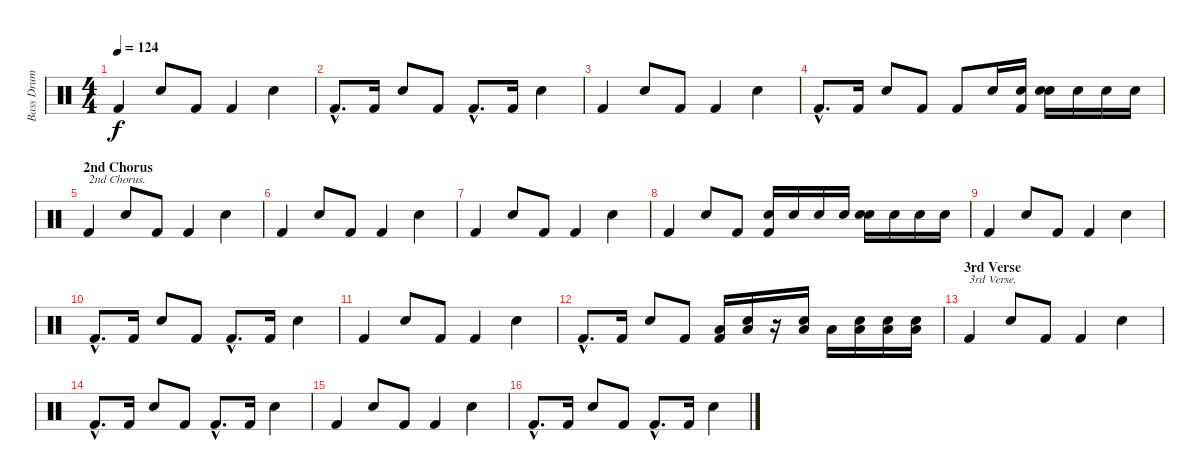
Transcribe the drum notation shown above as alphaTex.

\track ("Bass Drum and Snares" "Bass Drum ") {instrument percussion}
\staff {score}
\articulation defaults
\ts (4 4)
\tempo 124
\clef neutral
\ks c "Kick (hit) 2".4{dy f} "Snare (hit) 2".8 "Kick (hit) 2".8 "Kick (hit) 2".4 "Snare (hit) 2".4
|
"Kick (hit) 2"{hac}.8{d} "Kick (hit) 2".16 "Snare (hit) 2".8 "Kick (hit) 2".8 "Kick (hit) 2"{hac}.8{d} "Kick (hit) 2".16 "Snare (hit) 2".4 |
"Kick (hit) 2".4 "Snare (hit) 2".8 "Kick (hit) 2".8 "Kick (hit) 2".4 "Snare (hit) 2".4 |
"Kick (hit) 2"{hac}.8{d} "Kick (hit) 2".16 "Snare (hit) 2".8 "Kick (hit) 2".8 "Kick (hit) 2".8 "Electric Snare (hit)".16 ("Electric Snare (hit)" "Kick (hit) 2").16 ("Electric Snare (hit)" "Snare (hit) 2").16 "Electric Snare (hit)".16 "Electric Snare (hit)".16 "Electric Snare (hit)".16 |
\section ("" "2nd Chorus")
"Kick (hit) 2".4{txt "2nd Chorus."} "Snare (hit) 2".8 "Kick (hit) 2".8 "Kick (hit) 2".4 "Snare (hit) 2".4 |
"Kick (hit) 2".4 "Snare (hit) 2".8 "Kick (hit) 2".8 "Kick (hit) 2".4 "Snare (hit) 2".4 |
"Kick (hit) 2".4 "Snare (hit) 2".8 "Kick (hit) 2".8 "Kick (hit) 2".4 "Snare (hit) 2".4 |
"Kick (hit) 2".4 "Snare (hit) 2".8 "Kick (hit) 2".8 ("Electric Snare (hit)" "Kick (hit) 2").16 "Electric Snare (hit)".16 "Electric Snare (hit)".16 "Electric Snare (hit)".16 ("Electric Snare (hit)" "Snare (hit) 2").16 "Electric Snare (hit)".16 "Electric Snare (hit)".16 "Electric Snare (hit)".16 |
"Kick (hit) 2".4 "Snare (hit) 2".8 "Kick (hit) 2".8 "Kick (hit) 2".4 "Snare (hit) 2".4 |
"Kick (hit) 2"{hac}.8{d} "Kick (hit) 2".16 "Snare (hit) 2".8 "Kick (hit) 2".8 "Kick (hit) 2"{hac}.8{d} "Kick (hit) 2".16 "Snare (hit) 2".4 |
"Kick (hit) 2".4 "Snare (hit) 2".8 "Kick (hit) 2".8 "Kick (hit) 2".4 "Snare (hit) 2".4 |
"Kick (hit) 2"{hac}.8{d} "Kick (hit) 2".16 "Snare (hit) 2".8 "Kick (hit) 2".8 ("Low Tom (hit)" "Kick (hit) 2").16 ("Snare (hit) 2" "Low Tom (hit)").16 r.16 ("Snare (hit) 2" "Low Tom (hit)").16 "Low Tom (hit)".16 ("Snare (hit) 2" "Low Tom (hit)").16 ("Snare (hit) 2" "Low Tom (hit)").16 ("Snare (hit) 2" "Low Tom (hit)").16 |
\section ("" "3rd Verse")
"Kick (hit) 2".4{txt "3rd Verse."} "Snare (hit) 2".8 "Kick (hit) 2".8 "Kick (hit) 2".4 "Snare (hit) 2".4 |
"Kick (hit) 2"{hac}.8{d} "Kick (hit) 2".16 "Snare (hit) 2".8 "Kick (hit) 2".8 "Kick (hit) 2"{hac}.8{d} "Kick (hit) 2".16 "Snare (hit) 2".4 |
"Kick (hit) 2".4 "Snare (hit) 2".8 "Kick (hit) 2".8 "Kick (hit) 2".4 "Snare (hit) 2".4 |
"Kick (hit) 2"{hac}.8{d} "Kick (hit) 2".16 "Snare (hit) 2".8 "Kick (hit) 2".8 "Kick (hit) 2"{hac}.8{d} "Kick (hit) 2".16 "Snare (hit) 2".4
